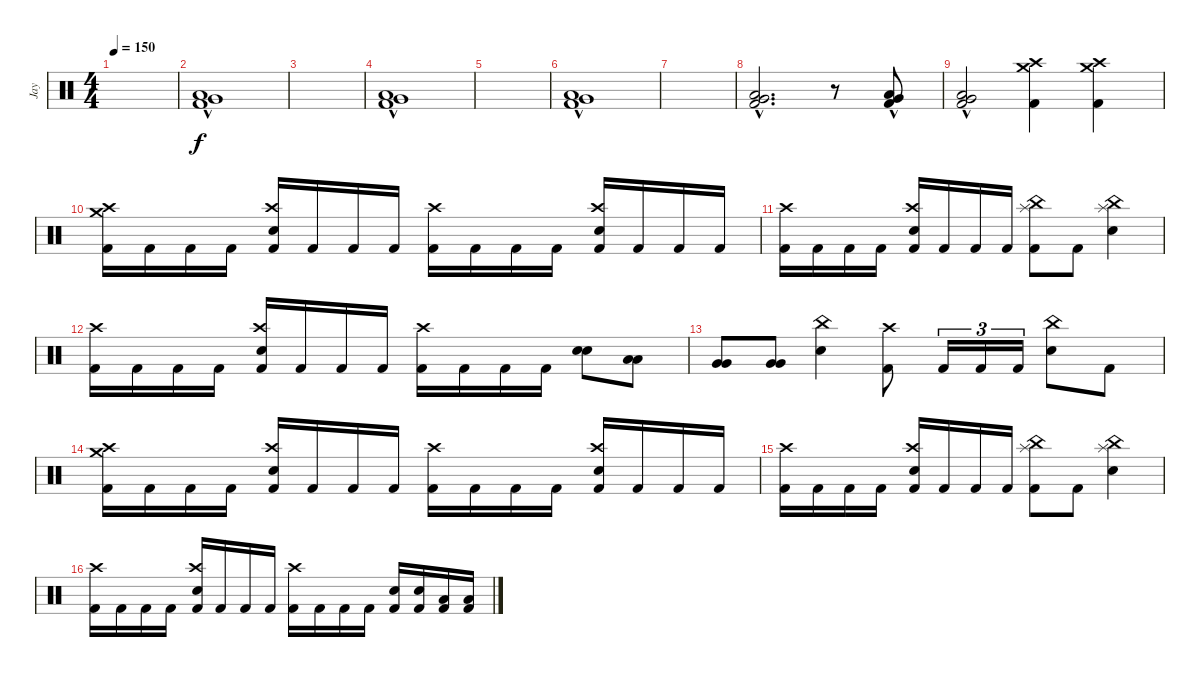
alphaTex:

\track ("Jay" "Jay") {instrument percussion}
\staff {score}
\articulation defaults
\ts (4 4)
\tempo 150
\clef neutral
\ks c
|
("Very Low Tom (hit)"{hac} "Low Floor Tom (hit)"{hac} "Kick (hit) 2"{hac}).1 |
|
("Very Low Tom (hit)"{hac} "Low Floor Tom (hit)"{hac} "Kick (hit) 2"{hac}).1 |
|
("Very Low Tom (hit)"{hac} "Low Floor Tom (hit)"{hac} "Kick (hit) 2"{hac}).1 |
|
("Very Low Tom (hit)"{hac} "Low Floor Tom (hit)"{hac} "Kick (hit) 2"{hac}).2{d} r.8 ("Very Low Tom (hit)"{hac} "Low Floor Tom (hit)"{hac} "Kick (hit) 2"{hac}).8 |
("Very Low Tom (hit)"{hac} "Low Floor Tom (hit)"{hac} "Kick (hit) 2"{hac}).2 ("Crash high (hit)" "Crash medium (hit)" "Kick (hit) 2").4{dy f} ("Crash high (hit)" "Crash medium (hit)" "Kick (hit) 2").4 |
("Crash high (hit)" "Crash medium (hit)" "Kick (hit) 2").16 "Kick (hit) 2".16 "Kick (hit) 2".16 "Kick (hit) 2".16 ("Crash high (hit)" "Electric Snare (hit)" "Kick (hit) 2").16 "Kick (hit) 2".16 "Kick (hit) 2".16 "Kick (hit) 2".16 ("Crash high (hit)" "Kick (hit) 2").16 "Kick (hit) 2".16 "Kick (hit) 2".16 "Kick (hit) 2".16 ("Crash high (hit)" "Electric Snare (hit)" "Kick (hit) 2").16 "Kick (hit) 2".16 "Kick (hit) 2".16 "Kick (hit) 2".16 |
("Crash high (hit)" "Kick (hit) 2").16 "Kick (hit) 2".16 "Kick (hit) 2".16 "Kick (hit) 2".16 ("Crash high (hit)" "Electric Snare (hit)" "Kick (hit) 2").16 "Kick (hit) 2".16 "Kick (hit) 2".16 "Kick (hit) 2".16 ("China (hit)" "Splash (hit)" "Kick (hit) 2").8 "Kick (hit) 2".8 ("China (hit)" "Splash (hit)" "Electric Snare (hit)").4 |
("Crash high (hit)" "Kick (hit) 2").16 "Kick (hit) 2".16 "Kick (hit) 2".16 "Kick (hit) 2".16 ("Crash high (hit)" "Electric Snare (hit)" "Kick (hit) 2").16 "Kick (hit) 2".16 "Kick (hit) 2".16 "Kick (hit) 2".16 ("Crash high (hit)" "Kick (hit) 2").16 "Kick (hit) 2".16 "Kick (hit) 2".16 "Kick (hit) 2".16 ("Electric Snare (hit)" "Electric Snare (hit)").8{bu 120} ("Low Tom (hit)" "Low Tom (hit)").8{bu 120} |
("Very Low Tom (hit)" "Very Low Tom (hit)").8{bu 120} ("Very Low Tom (hit)" "Very Low Tom (hit)").8{bu 120} ("China (hit)" "Electric Snare (hit)").4 ("Crash high (hit)" "Kick (hit) 2").8 "Kick (hit) 2".16{tu (3 2)} "Kick (hit) 2".16{tu (3 2)} "Kick (hit) 2".16{tu (3 2)} ("China (hit)" "Electric Snare (hit)").8 "Kick (hit) 2".8 |
("Crash high (hit)" "Crash medium (hit)" "Kick (hit) 2").16 "Kick (hit) 2".16 "Kick (hit) 2".16 "Kick (hit) 2".16 ("Crash high (hit)" "Electric Snare (hit)" "Kick (hit) 2").16 "Kick (hit) 2".16 "Kick (hit) 2".16 "Kick (hit) 2".16 ("Crash high (hit)" "Kick (hit) 2").16 "Kick (hit) 2".16 "Kick (hit) 2".16 "Kick (hit) 2".16 ("Crash high (hit)" "Electric Snare (hit)" "Kick (hit) 2").16 "Kick (hit) 2".16 "Kick (hit) 2".16 "Kick (hit) 2".16 |
("Crash high (hit)" "Kick (hit) 2").16 "Kick (hit) 2".16 "Kick (hit) 2".16 "Kick (hit) 2".16 ("Crash high (hit)" "Electric Snare (hit)" "Kick (hit) 2").16 "Kick (hit) 2".16 "Kick (hit) 2".16 "Kick (hit) 2".16 ("China (hit)" "Splash (hit)" "Kick (hit) 2").8 "Kick (hit) 2".8 ("China (hit)" "Splash (hit)" "Electric Snare (hit)").4 |
("Crash high (hit)" "Kick (hit) 2").16 "Kick (hit) 2".16 "Kick (hit) 2".16 "Kick (hit) 2".16 ("Crash high (hit)" "Electric Snare (hit)" "Kick (hit) 2").16 "Kick (hit) 2".16 "Kick (hit) 2".16 "Kick (hit) 2".16 ("Crash high (hit)" "Kick (hit) 2").16 "Kick (hit) 2".16 "Kick (hit) 2".16 "Kick (hit) 2".16 ("Electric Snare (hit)" "Kick (hit) 2").16 ("Electric Snare (hit)" "Kick (hit) 2").16 ("Low Tom (hit)" "Kick (hit) 2").16 ("Low Tom (hit)" "Kick (hit) 2").16
